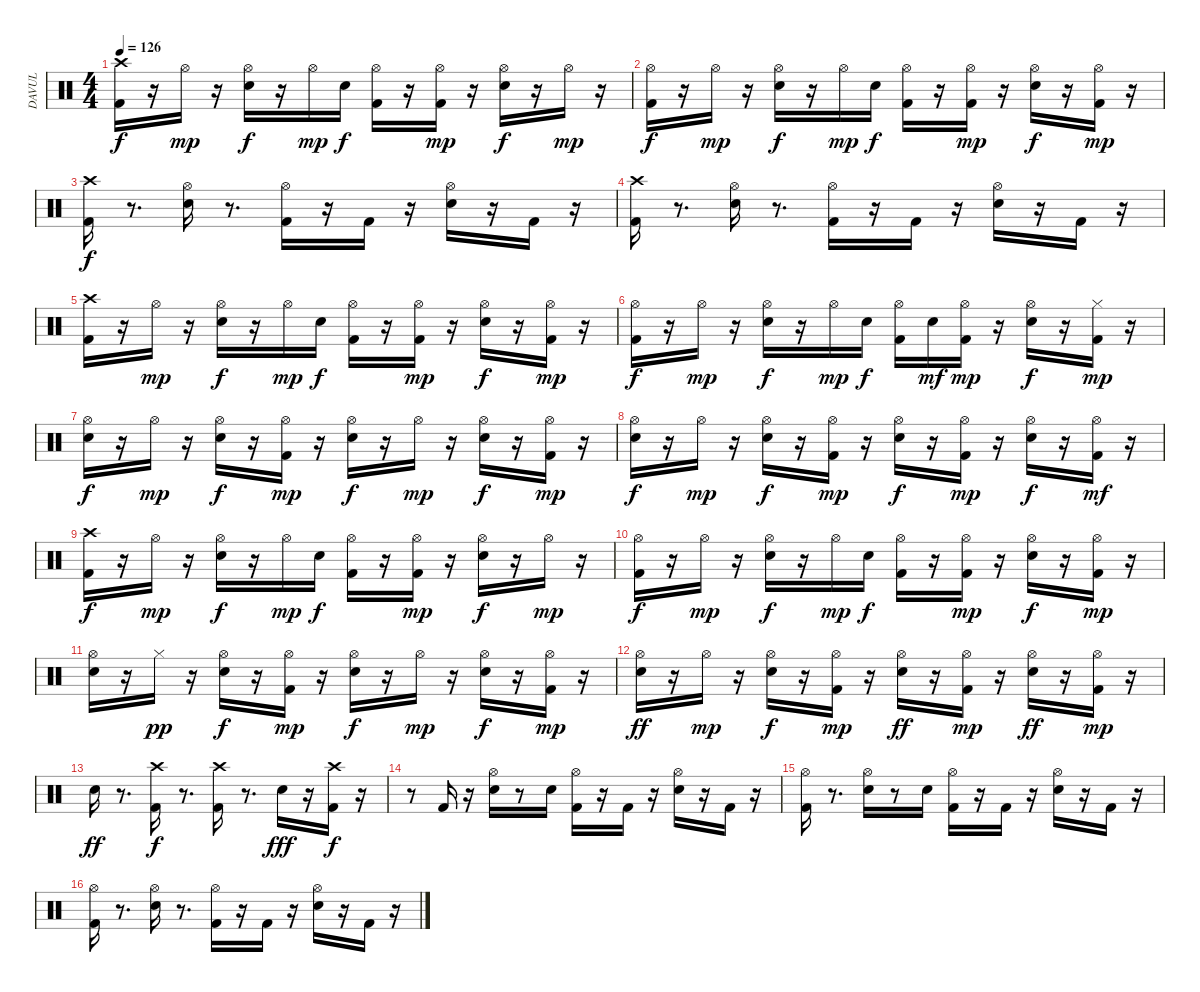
\track ("DAVUL" "DAVUL") {instrument percussion}
\staff {score}
\articulation defaults
\ts (4 4)
\tempo 126
\clef neutral
\ks c
("Kick (hit) 2" "Crash high (hit)").16{dy f} r.16 "Hi-Hat (open)".16{dy mp} r.16 ("Hi-Hat (open)" "Electric Snare (hit)").16{dy f} r.16 "Hi-Hat (open)".16{dy mp} "Electric Snare (hit)".16{dy f} ("Hi-Hat (open)" "Kick (hit) 2").16 r.16 ("Hi-Hat (open)" "Kick (hit) 2").16{dy mp} r.16 ("Hi-Hat (open)" "Electric Snare (hit)").16{dy f} r.16 "Hi-Hat (open)".16{dy mp} r.16 |
("Kick (hit) 2" "Hi-Hat (open)").16{dy f} r.16 "Hi-Hat (open)".16{dy mp} r.16 ("Hi-Hat (open)" "Electric Snare (hit)").16{dy f} r.16 "Hi-Hat (open)".16{dy mp} "Electric Snare (hit)".16{dy f} ("Hi-Hat (open)" "Kick (hit) 2").16 r.16 ("Hi-Hat (open)" "Kick (hit) 2").16{dy mp} r.16 ("Hi-Hat (open)" "Electric Snare (hit)").16{dy f} r.16 ("Kick (hit) 2" "Hi-Hat (open)").16{dy mp} r.16 |
("Crash high (hit)" "Kick (hit) 2").16{dy f} r.8{d} ("Hi-Hat (open)" "Electric Snare (hit)").16 r.8{d} ("Hi-Hat (open)" "Kick (hit) 2").16 r.16 "Kick (hit) 2".16 r.16 ("Hi-Hat (open)" "Electric Snare (hit)").16 r.16 "Kick (hit) 2".16 r.16 |
("Kick (hit) 2" "Crash high (hit)").16 r.8{d} ("Hi-Hat (open)" "Electric Snare (hit)").16 r.8{d} ("Hi-Hat (open)" "Kick (hit) 2").16 r.16 "Kick (hit) 2".16 r.16 ("Hi-Hat (open)" "Electric Snare (hit)").16 r.16 "Kick (hit) 2".16 r.16 |
("Kick (hit) 2" "Crash high (hit)").16 r.16 "Hi-Hat (open)".16{dy mp} r.16 ("Hi-Hat (open)" "Electric Snare (hit)").16{dy f} r.16 "Hi-Hat (open)".16{dy mp} "Electric Snare (hit)".16{dy f} ("Hi-Hat (open)" "Kick (hit) 2").16 r.16 ("Hi-Hat (open)" "Kick (hit) 2").16{dy mp} r.16 ("Hi-Hat (open)" "Electric Snare (hit)").16{dy f} r.16 ("Hi-Hat (open)" "Kick (hit) 2").16{dy mp} r.16 |
("Kick (hit) 2" "Hi-Hat (open)").16{dy f} r.16 "Hi-Hat (open)".16{dy mp} r.16 ("Hi-Hat (open)" "Electric Snare (hit)").16{dy f} r.16 "Hi-Hat (open)".16{dy mp} "Electric Snare (hit)".16{dy f} ("Hi-Hat (open)" "Kick (hit) 2").16 "Electric Snare (hit)".16{dy mf} ("Hi-Hat (open)" "Kick (hit) 2").16{dy mp} r.16 ("Hi-Hat (open)" "Electric Snare (hit)").16{dy f} r.16 ("Kick (hit) 2" "Hi-Hat (closed)").16{dy mp} r.16 |
("Electric Snare (hit)" "Hi-Hat (open)").16{dy f} r.16 "Hi-Hat (open)".16{dy mp} r.16 ("Hi-Hat (open)" "Electric Snare (hit)").16{dy f} r.16 ("Hi-Hat (open)" "Kick (hit) 2").16{dy mp} r.16 ("Hi-Hat (open)" "Electric Snare (hit)").16{dy f} r.16 "Hi-Hat (open)".16{dy mp} r.16 ("Hi-Hat (open)" "Electric Snare (hit)").16{dy f} r.16 ("Hi-Hat (open)" "Kick (hit) 2").16{dy mp} r.16 |
("Hi-Hat (open)" "Electric Snare (hit)").16{dy f} r.16 "Hi-Hat (open)".16{dy mp} r.16 ("Hi-Hat (open)" "Electric Snare (hit)").16{dy f} r.16 ("Hi-Hat (open)" "Kick (hit) 2").16{dy mp} r.16 ("Hi-Hat (open)" "Electric Snare (hit)").16{dy f} r.16 ("Hi-Hat (open)" "Kick (hit) 2").16{dy mp} r.16 ("Hi-Hat (open)" "Electric Snare (hit)").16{dy f} r.16 ("Kick (hit) 2" "Hi-Hat (open)").16{dy mf} r.16 |
("Kick (hit) 2" "Crash high (hit)").16{dy f} r.16 "Hi-Hat (open)".16{dy mp} r.16 ("Hi-Hat (open)" "Electric Snare (hit)").16{dy f} r.16 "Hi-Hat (open)".16{dy mp} "Electric Snare (hit)".16{dy f} ("Hi-Hat (open)" "Kick (hit) 2").16 r.16 ("Hi-Hat (open)" "Kick (hit) 2").16{dy mp} r.16 ("Hi-Hat (open)" "Electric Snare (hit)").16{dy f} r.16 "Hi-Hat (open)".16{dy mp} r.16 |
("Kick (hit) 2" "Hi-Hat (open)").16{dy f} r.16 "Hi-Hat (open)".16{dy mp} r.16 ("Hi-Hat (open)" "Electric Snare (hit)").16{dy f} r.16 "Hi-Hat (open)".16{dy mp} "Electric Snare (hit)".16{dy f} ("Hi-Hat (open)" "Kick (hit) 2").16 r.16 ("Hi-Hat (open)" "Kick (hit) 2").16{dy mp} r.16 ("Hi-Hat (open)" "Electric Snare (hit)").16{dy f} r.16 ("Kick (hit) 2" "Hi-Hat (open)").16{dy mp} r.16 |
("Electric Snare (hit)" "Hi-Hat (open)").16 r.16 "Hi-Hat (closed)".16{dy pp} r.16 ("Electric Snare (hit)" "Hi-Hat (open)").16{dy f} r.16 ("Kick (hit) 2" "Hi-Hat (open)").16{dy mp} r.16 ("Electric Snare (hit)" "Hi-Hat (open)").16{dy f} r.16 "Hi-Hat (open)".16{dy mp} r.16 ("Electric Snare (hit)" "Hi-Hat (open)").16{dy f} r.16 ("Kick (hit) 2" "Hi-Hat (open)").16{dy mp} r.16 |
("Hi-Hat (open)" "Electric Snare (hit)").16{dy ff} r.16 "Hi-Hat (open)".16{dy mp} r.16 ("Electric Snare (hit)" "Hi-Hat (open)").16{dy f} r.16 ("Kick (hit) 2" "Hi-Hat (open)").16{dy mp} r.16 ("Electric Snare (hit)" "Hi-Hat (open)").16{dy ff} r.16 ("Kick (hit) 2" "Hi-Hat (open)").16{dy mp} r.16 ("Electric Snare (hit)" "Hi-Hat (open)").16{dy ff} r.16 ("Kick (hit) 2" "Hi-Hat (open)").16{dy mp} r.16 |
"Electric Snare (hit)".16{dy ff} r.8{d} ("Kick (hit) 2" "Crash high (hit)").16{dy f} r.8{d} ("Kick (hit) 2" "Crash high (hit)").16 r.8{d} "Electric Snare (hit)".16{dy fff} r.16 ("Kick (hit) 2" "Crash high (hit)").16{dy f} r.16 |
r.8 "Kick (hit) 2".16 r.16 ("Hi-Hat (open)" "Electric Snare (hit)").16 r.8 "Electric Snare (hit)".16 ("Hi-Hat (open)" "Kick (hit) 2").16 r.16 "Kick (hit) 2".16 r.16 ("Hi-Hat (open)" "Electric Snare (hit)").16 r.16 "Kick (hit) 2".16 r.16 |
("Kick (hit) 2" "Hi-Hat (open)").16 r.8{d} ("Electric Snare (hit)" "Hi-Hat (open)").16 r.8 "Electric Snare (hit)".16 ("Kick (hit) 2" "Hi-Hat (open)").16 r.16 "Kick (hit) 2".16 r.16 ("Electric Snare (hit)" "Hi-Hat (open)").16 r.16 "Kick (hit) 2".16 r.16 |
("Kick (hit) 2" "Hi-Hat (open)").16 r.8{d} ("Hi-Hat (open)" "Electric Snare (hit)").16 r.8{d} ("Hi-Hat (open)" "Kick (hit) 2").16 r.16 "Kick (hit) 2".16 r.16 ("Hi-Hat (open)" "Electric Snare (hit)").16 r.16 "Kick (hit) 2".16 r.16
